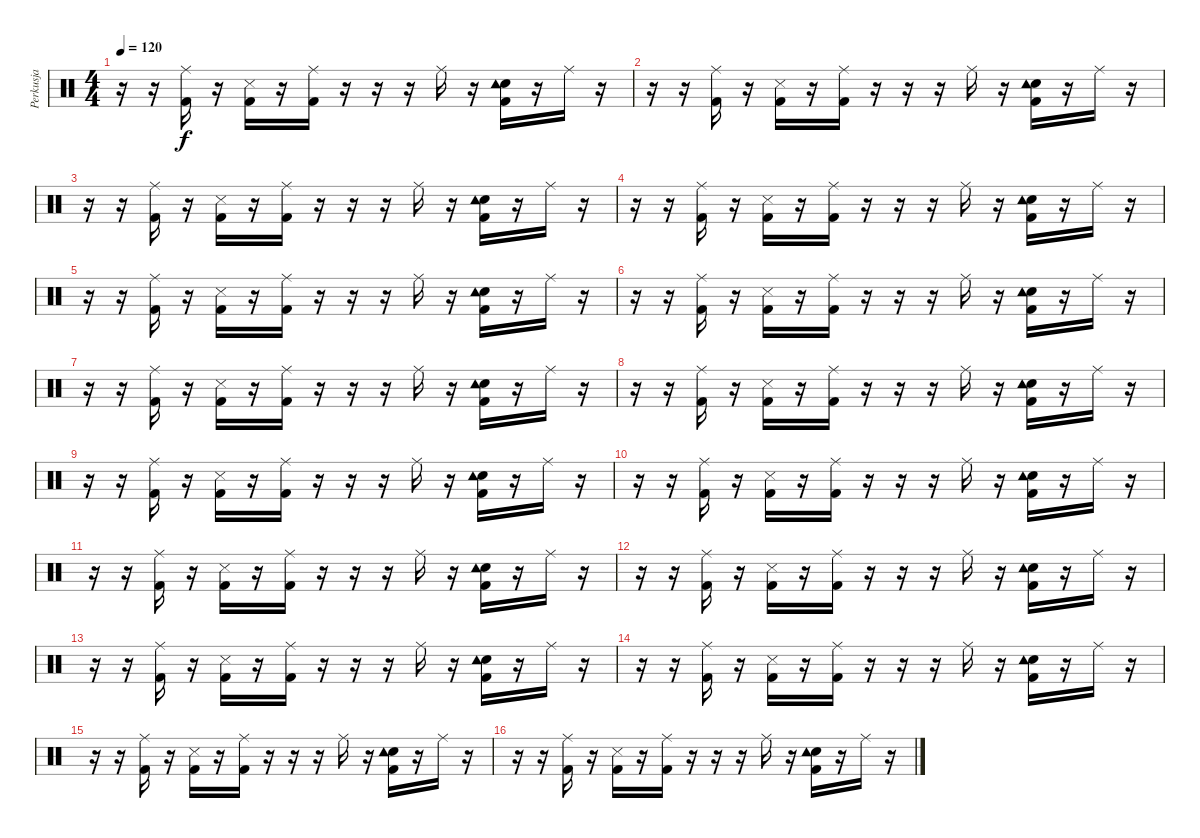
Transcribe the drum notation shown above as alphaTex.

\track ("Perkusja" "Perkusja") {instrument percussion}
\staff {score}
\articulation defaults
\ts (4 4)
\tempo 120
\clef neutral
\ks c
r.16{dy f} r.16 ("Kick (hit) 2" "Ride (middle)").16 r.16 ("Snare (side stick) 3" "Kick (hit) 2").16 r.16 ("Kick (hit) 2" "Ride (middle)").16 r.16 r.16 r.16 "Ride (middle)".16 r.16 ("Electric Snare (hit)" "Tambourine (hit)" "Kick (hit) 2").16 r.16 "Ride (middle)".16 r.16 |
r.16 r.16 ("Kick (hit) 2" "Ride (middle)").16 r.16 ("Snare (side stick) 3" "Kick (hit) 2").16 r.16 ("Kick (hit) 2" "Ride (middle)").16 r.16 r.16 r.16 "Ride (middle)".16 r.16 ("Electric Snare (hit)" "Tambourine (hit)" "Kick (hit) 2").16 r.16 "Ride (middle)".16 r.16 |
r.16 r.16 ("Kick (hit) 2" "Ride (middle)").16 r.16 ("Snare (side stick) 3" "Kick (hit) 2").16 r.16 ("Kick (hit) 2" "Ride (middle)").16 r.16 r.16 r.16 "Ride (middle)".16 r.16 ("Electric Snare (hit)" "Tambourine (hit)" "Kick (hit) 2").16 r.16 "Ride (middle)".16 r.16 |
r.16 r.16 ("Kick (hit) 2" "Ride (middle)").16 r.16 ("Snare (side stick) 3" "Kick (hit) 2").16 r.16 ("Kick (hit) 2" "Ride (middle)").16 r.16 r.16 r.16 "Ride (middle)".16 r.16 ("Electric Snare (hit)" "Tambourine (hit)" "Kick (hit) 2").16 r.16 "Ride (middle)".16 r.16 |
r.16 r.16 ("Kick (hit) 2" "Ride (middle)").16 r.16 ("Snare (side stick) 3" "Kick (hit) 2").16 r.16 ("Kick (hit) 2" "Ride (middle)").16 r.16 r.16 r.16 "Ride (middle)".16 r.16 ("Electric Snare (hit)" "Tambourine (hit)" "Kick (hit) 2").16 r.16 "Ride (middle)".16 r.16 |
r.16 r.16 ("Kick (hit) 2" "Ride (middle)").16 r.16 ("Snare (side stick) 3" "Kick (hit) 2").16 r.16 ("Kick (hit) 2" "Ride (middle)").16 r.16 r.16 r.16 "Ride (middle)".16 r.16 ("Electric Snare (hit)" "Tambourine (hit)" "Kick (hit) 2").16 r.16 "Ride (middle)".16 r.16 |
r.16 r.16 ("Kick (hit) 2" "Ride (middle)").16 r.16 ("Snare (side stick) 3" "Kick (hit) 2").16 r.16 ("Kick (hit) 2" "Ride (middle)").16 r.16 r.16 r.16 "Ride (middle)".16 r.16 ("Electric Snare (hit)" "Tambourine (hit)" "Kick (hit) 2").16 r.16 "Ride (middle)".16 r.16 |
r.16 r.16 ("Kick (hit) 2" "Ride (middle)").16 r.16 ("Snare (side stick) 3" "Kick (hit) 2").16 r.16 ("Kick (hit) 2" "Ride (middle)").16 r.16 r.16 r.16 "Ride (middle)".16 r.16 ("Electric Snare (hit)" "Tambourine (hit)" "Kick (hit) 2").16{volume 8} r.16 "Ride (middle)".16 r.16 |
r.16 r.16 ("Kick (hit) 2" "Ride (middle)").16 r.16 ("Snare (side stick) 3" "Kick (hit) 2").16 r.16 ("Kick (hit) 2" "Ride (middle)").16 r.16 r.16 r.16 "Ride (middle)".16 r.16 ("Electric Snare (hit)" "Tambourine (hit)" "Kick (hit) 2").16 r.16 "Ride (middle)".16 r.16 |
r.16 r.16 ("Kick (hit) 2" "Ride (middle)").16 r.16 ("Snare (side stick) 3" "Kick (hit) 2").16 r.16 ("Kick (hit) 2" "Ride (middle)").16 r.16 r.16 r.16 "Ride (middle)".16 r.16 ("Electric Snare (hit)" "Tambourine (hit)" "Kick (hit) 2").16 r.16 "Ride (middle)".16 r.16 |
r.16 r.16 ("Kick (hit) 2" "Ride (middle)").16 r.16 ("Snare (side stick) 3" "Kick (hit) 2").16 r.16 ("Kick (hit) 2" "Ride (middle)").16 r.16 r.16 r.16 "Ride (middle)".16 r.16 ("Electric Snare (hit)" "Tambourine (hit)" "Kick (hit) 2").16 r.16 "Ride (middle)".16 r.16 |
r.16 r.16 ("Kick (hit) 2" "Ride (middle)").16 r.16 ("Snare (side stick) 3" "Kick (hit) 2").16 r.16 ("Kick (hit) 2" "Ride (middle)").16 r.16 r.16 r.16 "Ride (middle)".16 r.16 ("Electric Snare (hit)" "Tambourine (hit)" "Kick (hit) 2").16 r.16 "Ride (middle)".16 r.16 |
r.16 r.16 ("Kick (hit) 2" "Ride (middle)").16 r.16 ("Snare (side stick) 3" "Kick (hit) 2").16 r.16 ("Kick (hit) 2" "Ride (middle)").16 r.16 r.16 r.16 "Ride (middle)".16 r.16 ("Electric Snare (hit)" "Tambourine (hit)" "Kick (hit) 2").16{volume 8} r.16 "Ride (middle)".16 r.16 |
r.16 r.16 ("Kick (hit) 2" "Ride (middle)").16 r.16 ("Snare (side stick) 3" "Kick (hit) 2").16 r.16 ("Kick (hit) 2" "Ride (middle)").16 r.16 r.16 r.16 "Ride (middle)".16 r.16 ("Electric Snare (hit)" "Tambourine (hit)" "Kick (hit) 2").16 r.16 "Ride (middle)".16 r.16 |
r.16 r.16 ("Kick (hit) 2" "Ride (middle)").16 r.16 ("Snare (side stick) 3" "Kick (hit) 2").16 r.16 ("Kick (hit) 2" "Ride (middle)").16 r.16 r.16 r.16 "Ride (middle)".16 r.16 ("Electric Snare (hit)" "Tambourine (hit)" "Kick (hit) 2").16 r.16 "Ride (middle)".16 r.16 |
r.16 r.16 ("Kick (hit) 2" "Ride (middle)").16 r.16 ("Snare (side stick) 3" "Kick (hit) 2").16 r.16 ("Kick (hit) 2" "Ride (middle)").16 r.16 r.16 r.16 "Ride (middle)".16 r.16 ("Electric Snare (hit)" "Tambourine (hit)" "Kick (hit) 2").16 r.16 "Ride (middle)".16 r.16
